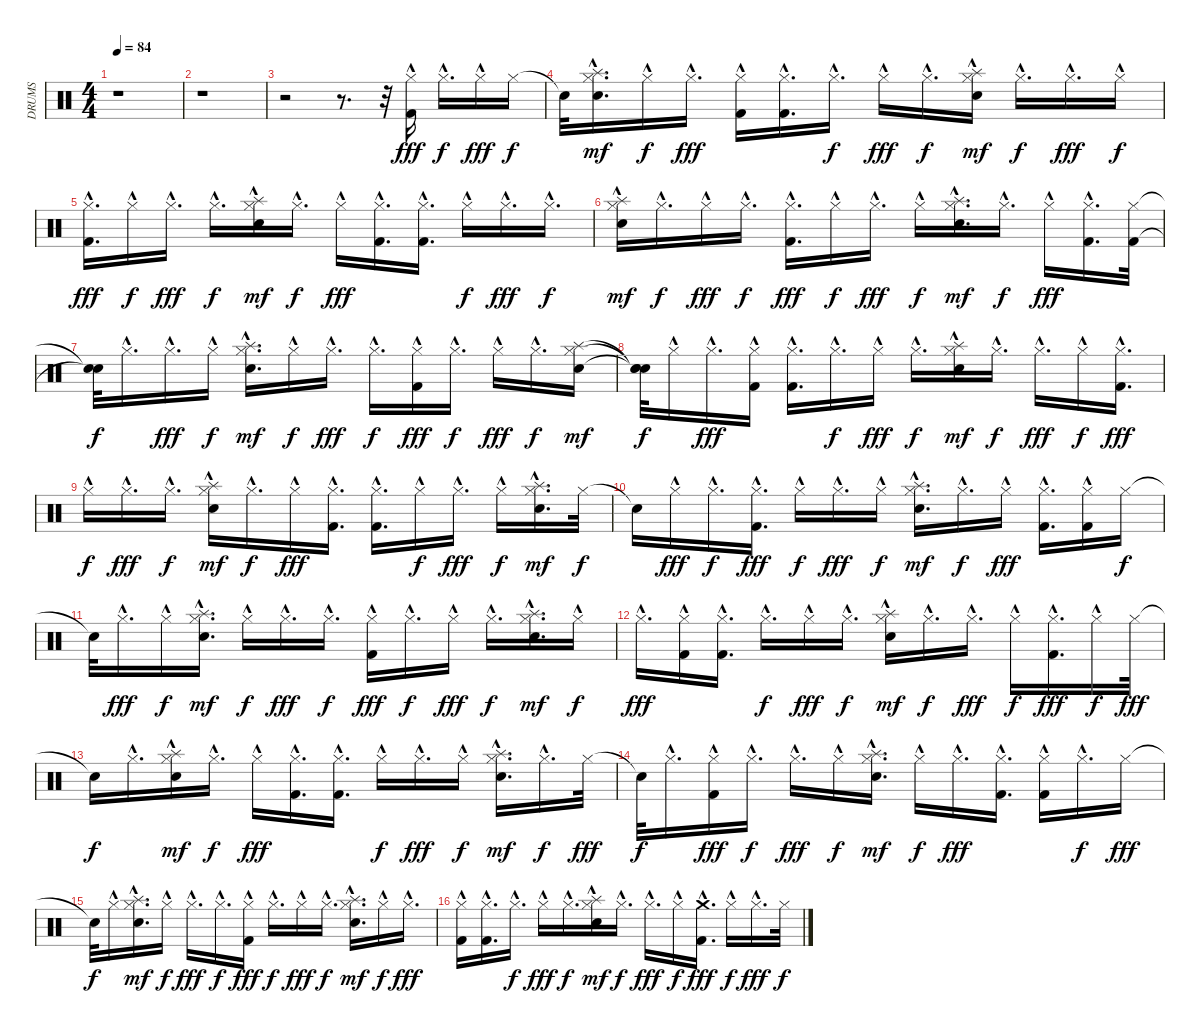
\track ("DRUMS" "DRUMS") {instrument percussion}
\staff {score}
\articulation defaults
\ts (4 4)
\tempo 84
\clef neutral
\ks c
r.1{dy fff} |
r.1 |
r.2 r.8{d} r.32 ("Kick (hit) 2"{hac} "Hi-Hat (closed)"{hac}).16 "Hi-Hat (closed)"{hac}.16{d dy f} "Hi-Hat (closed)"{hac}.16{dy fff} "Hi-Hat (closed)".16{dy f} |
"Snare (hit)"{t}.32 ("Snare (hit) 2"{hac} "Hi-Hat (closed)"{hac} "Splash (hit)"{hac}).16{d dy mf} "Hi-Hat (closed)"{hac}.16{dy f} "Hi-Hat (closed)"{hac}.16{d dy fff} ("Hi-Hat (closed)"{hac} "Kick (hit) 2"{hac}).16 ("Hi-Hat (closed)"{hac} "Kick (hit) 2"{hac}).16{d} "Hi-Hat (closed)"{hac}.16{d dy f} "Hi-Hat (closed)"{hac}.16{dy fff} "Hi-Hat (closed)"{hac}.16{d dy f} ("Hi-Hat (closed)"{hac} "Snare (hit) 2"{hac} "Splash (hit)"{hac}).16{dy mf} "Hi-Hat (closed)"{hac}.16{d dy f} "Hi-Hat (closed)"{hac}.16{d dy fff} "Hi-Hat (closed)"{hac}.16{dy f} |
("Hi-Hat (closed)"{hac} "Kick (hit) 2"{hac}).16{d dy fff} "Hi-Hat (closed)"{hac}.16{dy f} "Hi-Hat (closed)"{hac}.16{d dy fff} "Hi-Hat (closed)"{hac}.16{d dy f} ("Snare (hit) 2"{hac} "Hi-Hat (closed)"{hac} "Splash (hit)"{hac}).16{dy mf} "Hi-Hat (closed)"{hac}.16{d dy f} "Hi-Hat (closed)"{hac}.16{dy fff} ("Hi-Hat (closed)"{hac} "Kick (hit) 2"{hac}).16{d} ("Kick (hit) 2"{hac} "Hi-Hat (closed)"{hac}).16{d} "Hi-Hat (closed)"{hac}.16{dy f} "Hi-Hat (closed)"{hac}.16{d dy fff} "Hi-Hat (closed)"{hac}.16{d dy f} |
("Hi-Hat (closed)"{hac} "Snare (hit) 2"{hac} "Splash (hit)"{hac}).16{dy mf} "Hi-Hat (closed)"{hac}.16{d dy f} "Hi-Hat (closed)"{hac}.16{dy fff} "Hi-Hat (closed)"{hac}.16{d dy f} ("Kick (hit) 2"{hac} "Hi-Hat (closed)"{hac}).16{d dy fff} "Hi-Hat (closed)"{hac}.16{dy f} "Hi-Hat (closed)"{hac}.16{d dy fff} "Hi-Hat (closed)"{hac}.16{dy f} ("Hi-Hat (closed)"{hac} "Snare (hit) 2"{hac} "Splash (hit)"{hac}).16{d dy mf} "Hi-Hat (closed)"{hac}.16{d dy f} "Hi-Hat (closed)"{hac}.16{dy fff} ("Hi-Hat (closed)"{hac} "Kick (hit) 2"{hac}).16{d} ("Kick (hit) 2" "Hi-Hat (closed)").32 |
("Snare (hit)"{t} "Snare (hit)"{t}).32{dy f} "Hi-Hat (closed)"{hac}.16{d} "Hi-Hat (closed)"{hac}.16{d dy fff} "Hi-Hat (closed)"{hac}.16{dy f} ("Hi-Hat (closed)"{hac} "Snare (hit) 2"{hac} "Splash (hit)"{hac}).16{d dy mf} "Hi-Hat (closed)"{hac}.16{dy f} "Hi-Hat (closed)"{hac}.16{d dy fff} "Hi-Hat (closed)"{hac}.16{d dy f} ("Hi-Hat (closed)"{hac} "Kick (hit) 2"{hac}).16{dy fff} "Hi-Hat (closed)"{hac}.16{d dy f} "Hi-Hat (closed)"{hac}.16{dy fff} "Hi-Hat (closed)"{hac}.16{d dy f} ("Snare (hit) 2" "Hi-Hat (closed)" "Splash (hit)").16{dy mf} |
("Snare (hit)"{t} "Snare (hit)"{t} "Snare (hit)"{t}).32{dy f} "Hi-Hat (closed)"{hac}.16 "Hi-Hat (closed)"{hac}.16{d dy fff} ("Hi-Hat (closed)"{hac} "Kick (hit) 2"{hac}).16 ("Hi-Hat (closed)"{hac} "Kick (hit) 2"{hac}).16{d} "Hi-Hat (closed)"{hac}.16{d dy f} "Hi-Hat (closed)"{hac}.16{dy fff} "Hi-Hat (closed)"{hac}.16{d dy f} ("Hi-Hat (closed)"{hac} "Snare (hit) 2"{hac} "Splash (hit)"{hac}).16{dy mf} "Hi-Hat (closed)"{hac}.16{d dy f} "Hi-Hat (closed)"{hac}.16{d dy fff} "Hi-Hat (closed)"{hac}.16{dy f} ("Kick (hit) 2"{hac} "Hi-Hat (closed)"{hac}).16{d dy fff} |
"Hi-Hat (closed)"{hac}.16{dy f} "Hi-Hat (closed)"{hac}.16{d dy fff} "Hi-Hat (closed)"{hac}.16{d dy f} ("Hi-Hat (closed)"{hac} "Snare (hit) 2"{hac} "Splash (hit)"{hac}).16{dy mf} "Hi-Hat (closed)"{hac}.16{d dy f} "Hi-Hat (closed)"{hac}.16{dy fff} ("Kick (hit) 2"{hac} "Hi-Hat (closed)"{hac}).16{d} ("Hi-Hat (closed)"{hac} "Kick (hit) 2"{hac}).16{d} "Hi-Hat (closed)"{hac}.16{dy f} "Hi-Hat (closed)"{hac}.16{d dy fff} "Hi-Hat (closed)"{hac}.16{dy f} ("Snare (hit) 2"{hac} "Hi-Hat (closed)"{hac} "Splash (hit)"{hac}).16{d dy mf} "Hi-Hat (closed)".32{dy f} |
"Snare (hit)"{t}.16 "Hi-Hat (closed)"{hac}.16{dy fff} "Hi-Hat (closed)"{hac}.16{d dy f} ("Kick (hit) 2"{hac} "Hi-Hat (closed)"{hac}).16{d dy fff} "Hi-Hat (closed)"{hac}.16{dy f} "Hi-Hat (closed)"{hac}.16{d dy fff} "Hi-Hat (closed)"{hac}.16{dy f} ("Hi-Hat (closed)"{hac} "Snare (hit) 2"{hac} "Splash (hit)"{hac}).16{d dy mf} "Hi-Hat (closed)"{hac}.16{d dy f} "Hi-Hat (closed)"{hac}.16{dy fff} ("Kick (hit) 2"{hac} "Hi-Hat (closed)"{hac}).16{d} ("Hi-Hat (closed)"{hac} "Kick (hit) 2"{hac}).16 "Hi-Hat (closed)".16{dy f} |
"Snare (hit)"{t}.32 "Hi-Hat (closed)"{hac}.16{d dy fff} "Hi-Hat (closed)"{hac}.16{dy f} ("Snare (hit) 2"{hac} "Hi-Hat (closed)"{hac} "Splash (hit)"{hac}).16{d dy mf} "Hi-Hat (closed)"{hac}.16{dy f} "Hi-Hat (closed)"{hac}.16{d dy fff} "Hi-Hat (closed)"{hac}.16{d dy f} ("Kick (hit) 2"{hac} "Hi-Hat (closed)"{hac}).16{dy fff} "Hi-Hat (closed)"{hac}.16{d dy f} "Hi-Hat (closed)"{hac}.16{dy fff} "Hi-Hat (closed)"{hac}.16{d dy f} ("Snare (hit) 2"{hac} "Hi-Hat (closed)"{hac} "Splash (hit)"{hac}).16{d dy mf} "Hi-Hat (closed)"{hac}.16{dy f} |
"Hi-Hat (closed)"{hac}.16{d dy fff} ("Kick (hit) 2"{hac} "Hi-Hat (closed)"{hac}).16 ("Kick (hit) 2"{hac} "Hi-Hat (closed)"{hac}).16{d} "Hi-Hat (closed)"{hac}.16{d dy f} "Hi-Hat (closed)"{hac}.16{dy fff} "Hi-Hat (closed)"{hac}.16{d dy f} ("Snare (hit) 2"{hac} "Hi-Hat (closed)"{hac} "Splash (hit)"{hac}).16{dy mf} "Hi-Hat (closed)"{hac}.16{d dy f} "Hi-Hat (closed)"{hac}.16{d dy fff} "Hi-Hat (closed)"{hac}.16{dy f} ("Hi-Hat (closed)"{hac} "Kick (hit) 2"{hac}).16{d dy fff} "Hi-Hat (closed)"{hac}.16{dy f} "Hi-Hat (closed)".32{dy fff} |
"Snare (hit)"{t}.16{dy f} "Hi-Hat (closed)"{hac}.16{d} ("Snare (hit) 2"{hac} "Hi-Hat (closed)"{hac} "Splash (hit)"{hac}).16{dy mf} "Hi-Hat (closed)"{hac}.16{d dy f} "Hi-Hat (closed)"{hac}.16{dy fff} ("Kick (hit) 2"{hac} "Hi-Hat (closed)"{hac}).16{d} ("Hi-Hat (closed)"{hac} "Kick (hit) 2"{hac}).16{d} "Hi-Hat (closed)"{hac}.16{dy f} "Hi-Hat (closed)"{hac}.16{d dy fff} "Hi-Hat (closed)"{hac}.16{dy f} ("Hi-Hat (closed)"{hac} "Snare (hit) 2"{hac} "Splash (hit)"{hac}).16{d dy mf} "Hi-Hat (closed)"{hac}.16{d dy f} "Hi-Hat (closed)".32{dy fff} |
"Snare (hit)"{t}.32{dy f} "Hi-Hat (closed)"{hac}.16{d} ("Kick (hit) 2"{hac} "Hi-Hat (closed)"{hac}).16{dy fff} "Hi-Hat (closed)"{hac}.16{d dy f} "Hi-Hat (closed)"{hac}.16{d dy fff} "Hi-Hat (closed)"{hac}.16{dy f} ("Snare (hit) 2"{hac} "Hi-Hat (closed)"{hac} "Splash (hit)"{hac}).16{d dy mf} "Hi-Hat (closed)"{hac}.16{dy f} "Hi-Hat (closed)"{hac}.16{d dy fff} ("Hi-Hat (closed)"{hac} "Kick (hit) 2"{hac}).16{d} ("Hi-Hat (closed)"{hac} "Kick (hit) 2"{hac}).16 "Hi-Hat (closed)"{hac}.16{d dy f} "Hi-Hat (closed)".16{dy fff} |
"Snare (hit)"{t}.32{dy f} "Hi-Hat (closed)"{hac}.16 ("Snare (hit) 2"{hac} "Hi-Hat (closed)"{hac} "Splash (hit)"{hac}).16{d dy mf} "Hi-Hat (closed)"{hac}.16{dy f} "Hi-Hat (closed)"{hac}.16{d dy fff} "Hi-Hat (closed)"{hac}.16{d dy f} ("Hi-Hat (closed)"{hac} "Kick (hit) 2"{hac}).16{dy fff} "Hi-Hat (closed)"{hac}.16{d dy f} "Hi-Hat (closed)"{hac}.16{dy fff} "Hi-Hat (closed)"{hac}.16{d dy f} ("Hi-Hat (closed)"{hac} "Snare (hit) 2"{hac} "Splash (hit)"{hac}).16{d dy mf} "Hi-Hat (closed)"{hac}.16{dy f} "Hi-Hat (closed)"{hac}.16{d dy fff} |
("Hi-Hat (closed)"{hac} "Kick (hit) 2"{hac}).16 ("Hi-Hat (closed)"{hac} "Kick (hit) 2"{hac}).16{d} "Hi-Hat (closed)"{hac}.16{d dy f} "Hi-Hat (closed)"{hac}.16{dy fff} "Hi-Hat (closed)"{hac}.16{d dy f} ("Snare (hit) 2"{hac} "Hi-Hat (closed)"{hac} "Splash (hit)"{hac}).16{dy mf} "Hi-Hat (closed)"{hac}.16{d dy f} "Hi-Hat (closed)"{hac}.16{d dy fff} "Hi-Hat (closed)"{hac}.16{dy f} ("Kick (hit) 2"{hac} "Crash medium (hit)").16{d dy fff} "Hi-Hat (closed)"{hac}.16{dy f} "Hi-Hat (closed)"{hac}.16{d dy fff} "Hi-Hat (closed)".32{dy f}
